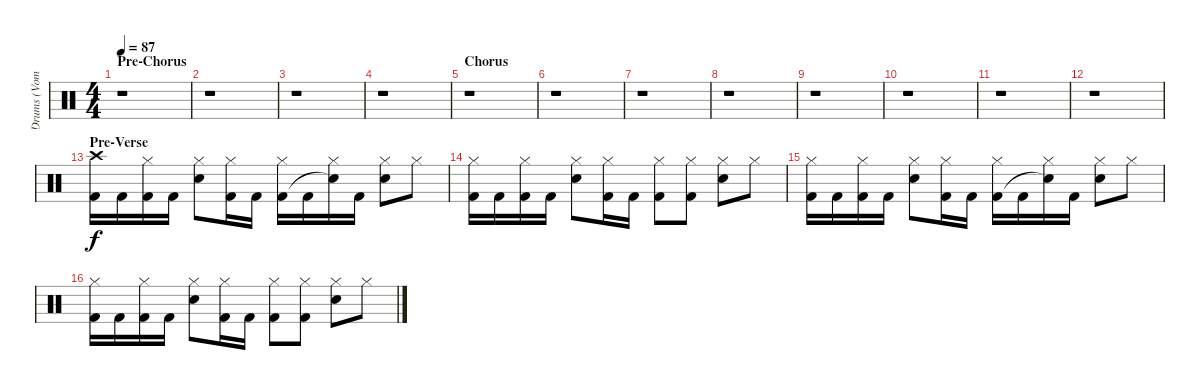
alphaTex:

\track ("Drums (Vom)" "Drums (Vom") {instrument percussion}
\staff {score}
\articulation defaults
\ts (4 4)
\section ("" "Pre-Chorus")
\tempo 87
\clef neutral
\ks c
r.1{dy f} |
r.1 |
r.1 |
r.1 |
\section ("" "Chorus")
r.1 |
r.1 |
r.1 |
r.1 |
r.1 |
r.1 |
r.1 |
r.1 |
\section ("" "Pre-Verse")
("Crash high (hit)" "Kick (hit) 2").16 "Kick (hit) 2".16 ("Hi-Hat (closed)" "Kick (hit) 2").16 "Kick (hit) 2".16 ("Hi-Hat (closed)" "Snare (hit) 2").8 ("Hi-Hat (closed)" "Kick (hit) 2").16 "Kick (hit) 2".16 ("Hi-Hat (closed)" "Kick (hit) 2").16 "Kick (hit) 2".16 ("Hi-Hat (closed)" "Snare (hit)"{t}).16 "Kick (hit) 2".16 ("Hi-Hat (closed)" "Snare (hit) 2").8 "Hi-Hat (closed)".8 |
("Hi-Hat (closed)" "Kick (hit) 2").16 "Kick (hit) 2".16 ("Hi-Hat (closed)" "Kick (hit) 2").16 "Kick (hit) 2".16 ("Hi-Hat (closed)" "Snare (hit) 2").8 ("Hi-Hat (closed)" "Kick (hit) 2").16 "Kick (hit) 2".16 ("Hi-Hat (closed)" "Kick (hit) 2").8 ("Hi-Hat (closed)" "Kick (hit) 2").8 ("Hi-Hat (closed)" "Snare (hit) 2").8 "Hi-Hat (closed)".8 |
("Hi-Hat (closed)" "Kick (hit) 2").16 "Kick (hit) 2".16 ("Hi-Hat (closed)" "Kick (hit) 2").16 "Kick (hit) 2".16 ("Hi-Hat (closed)" "Snare (hit) 2").8 ("Hi-Hat (closed)" "Kick (hit) 2").16 "Kick (hit) 2".16 ("Hi-Hat (closed)" "Kick (hit) 2").16 "Kick (hit) 2".16 ("Hi-Hat (closed)" "Snare (hit)"{t}).16 "Kick (hit) 2".16 ("Hi-Hat (closed)" "Snare (hit) 2").8 "Hi-Hat (closed)".8 |
("Hi-Hat (closed)" "Kick (hit) 2").16 "Kick (hit) 2".16 ("Hi-Hat (closed)" "Kick (hit) 2").16 "Kick (hit) 2".16 ("Hi-Hat (closed)" "Snare (hit) 2").8 ("Hi-Hat (closed)" "Kick (hit) 2").16 "Kick (hit) 2".16 ("Hi-Hat (closed)" "Kick (hit) 2").8 ("Hi-Hat (closed)" "Kick (hit) 2").8 ("Hi-Hat (closed)" "Snare (hit) 2").8 "Hi-Hat (closed)".8
